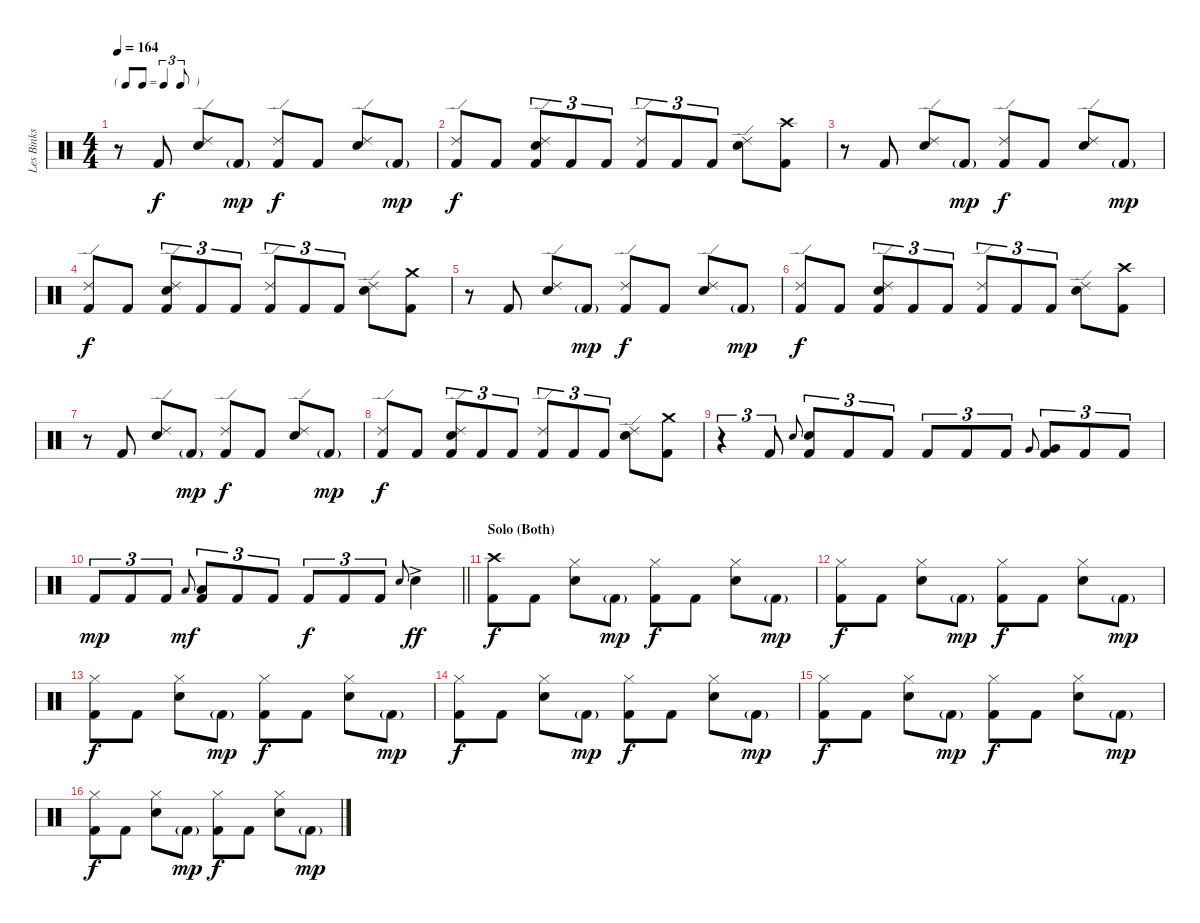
\track ("Les Binks" "Les Binks") {instrument percussion}
\staff {score}
\articulation defaults
\ts (4 4)
\tf triplet8th
\tempo 164
\clef neutral
\ks c
r.8{dy f} "Kick (hit) 2".8 ("Ride (edge) 2" "Electric Snare (hit)").8 "Kick (hit) 2"{g}.8{dy mp} ("Ride (edge) 2" "Kick (hit) 2").8{dy f} "Kick (hit) 2".8 ("Ride (edge) 2" "Electric Snare (hit)").8 "Kick (hit) 2"{g}.8{dy mp} |
("Ride (edge) 2" "Kick (hit) 2").8{dy f} "Kick (hit) 2".8 ("Ride (edge) 2" "Electric Snare (hit)" "Kick (hit) 2").8{tu (3 2)} "Kick (hit) 2".8{tu (3 2)} "Kick (hit) 2".8{tu (3 2)} ("Ride (edge) 2" "Kick (hit) 2").8{tu (3 2)} "Kick (hit) 2".8{tu (3 2)} "Kick (hit) 2".8{tu (3 2)} ("Ride (edge) 2" "Electric Snare (hit)").8 ("Crash high (hit)" "Kick (hit) 2").8 |
r.8 "Kick (hit) 2".8 ("Ride (edge) 2" "Electric Snare (hit)").8 "Kick (hit) 2"{g}.8{dy mp} ("Ride (edge) 2" "Kick (hit) 2").8{dy f} "Kick (hit) 2".8 ("Ride (edge) 2" "Electric Snare (hit)").8 "Kick (hit) 2"{g}.8{dy mp} |
("Ride (edge) 2" "Kick (hit) 2").8{dy f} "Kick (hit) 2".8 ("Ride (edge) 2" "Electric Snare (hit)" "Kick (hit) 2").8{tu (3 2)} "Kick (hit) 2".8{tu (3 2)} "Kick (hit) 2".8{tu (3 2)} ("Ride (edge) 2" "Kick (hit) 2").8{tu (3 2)} "Kick (hit) 2".8{tu (3 2)} "Kick (hit) 2".8{tu (3 2)} ("Ride (edge) 2" "Electric Snare (hit)").8 ("Crash medium (hit)" "Kick (hit) 2").8 |
r.8 "Kick (hit) 2".8 ("Ride (edge) 2" "Electric Snare (hit)").8 "Kick (hit) 2"{g}.8{dy mp} ("Ride (edge) 2" "Kick (hit) 2").8{dy f} "Kick (hit) 2".8 ("Ride (edge) 2" "Electric Snare (hit)").8 "Kick (hit) 2"{g}.8{dy mp} |
("Ride (edge) 2" "Kick (hit) 2").8{dy f} "Kick (hit) 2".8 ("Ride (edge) 2" "Electric Snare (hit)" "Kick (hit) 2").8{tu (3 2)} "Kick (hit) 2".8{tu (3 2)} "Kick (hit) 2".8{tu (3 2)} ("Ride (edge) 2" "Kick (hit) 2").8{tu (3 2)} "Kick (hit) 2".8{tu (3 2)} "Kick (hit) 2".8{tu (3 2)} ("Ride (edge) 2" "Electric Snare (hit)").8 ("Crash high (hit)" "Kick (hit) 2").8 |
r.8 "Kick (hit) 2".8 ("Ride (edge) 2" "Electric Snare (hit)").8 "Kick (hit) 2"{g}.8{dy mp} ("Ride (edge) 2" "Kick (hit) 2").8{dy f} "Kick (hit) 2".8 ("Ride (edge) 2" "Electric Snare (hit)").8 "Kick (hit) 2"{g}.8{dy mp} |
("Ride (edge) 2" "Kick (hit) 2").8{dy f} "Kick (hit) 2".8 ("Ride (edge) 2" "Electric Snare (hit)" "Kick (hit) 2").8{tu (3 2)} "Kick (hit) 2".8{tu (3 2)} "Kick (hit) 2".8{tu (3 2)} ("Ride (edge) 2" "Kick (hit) 2").8{tu (3 2)} "Kick (hit) 2".8{tu (3 2)} "Kick (hit) 2".8{tu (3 2)} ("Ride (edge) 2" "Electric Snare (hit)").8 ("Crash medium (hit)" "Kick (hit) 2").8 |
r.4{tu (3 2)} "Kick (hit) 2".8{tu (3 2)} "Electric Snare (hit)".8{gr onbeat} ("Electric Snare (hit)" "Kick (hit) 2").8{tu (3 2)} "Kick (hit) 2".8{tu (3 2)} "Kick (hit) 2".8{tu (3 2)} "Kick (hit) 2".8{tu (3 2)} "Kick (hit) 2".8{tu (3 2)} "Kick (hit) 2".8{tu (3 2)} "Very Low Tom (hit)".8{gr onbeat} ("Very Low Tom (hit)" "Kick (hit) 2").8{tu (3 2)} "Kick (hit) 2".8{tu (3 2)} "Kick (hit) 2".8{tu (3 2)} |
\barLineRight lightlight "Kick (hit) 2".8{tu (3 2) dy mp} "Kick (hit) 2".8{tu (3 2)} "Kick (hit) 2".8{tu (3 2)} "Low Floor Tom (hit)".8{gr onbeat dy mf}
("Low Floor Tom (hit)" "Kick (hit) 2").8{tu (3 2)} "Kick (hit) 2".8{tu (3 2)} "Kick (hit) 2".8{tu (3 2)} "Kick (hit) 2".8{tu (3 2) dy f} "Kick (hit) 2".8{tu (3 2)} "Kick (hit) 2".8{tu (3 2)} "Electric Snare (hit)".8{gr onbeat} "Electric Snare (hit)"{ac}.4{dy ff} |
\section ("" "Solo (Both)")
("Crash high (hit)" "Kick (hit) 2").8{dy f} "Kick (hit) 2".8 ("Hi-Hat (closed)" "Electric Snare (hit)").8 "Kick (hit) 2"{g}.8{dy mp} ("Hi-Hat (closed)" "Kick (hit) 2").8{dy f} "Kick (hit) 2".8 ("Hi-Hat (closed)" "Electric Snare (hit)").8 "Kick (hit) 2"{g}.8{dy mp} |
("Hi-Hat (closed)" "Kick (hit) 2").8{dy f} "Kick (hit) 2".8 ("Hi-Hat (closed)" "Electric Snare (hit)").8 "Kick (hit) 2"{g}.8{dy mp} ("Hi-Hat (closed)" "Kick (hit) 2").8{dy f} "Kick (hit) 2".8 ("Hi-Hat (closed)" "Electric Snare (hit)").8 "Kick (hit) 2"{g}.8{dy mp} |
("Hi-Hat (closed)" "Kick (hit) 2").8{dy f} "Kick (hit) 2".8 ("Hi-Hat (closed)" "Electric Snare (hit)").8 "Kick (hit) 2"{g}.8{dy mp} ("Hi-Hat (closed)" "Kick (hit) 2").8{dy f} "Kick (hit) 2".8 ("Hi-Hat (closed)" "Electric Snare (hit)").8 "Kick (hit) 2"{g}.8{dy mp} |
("Hi-Hat (closed)" "Kick (hit) 2").8{dy f} "Kick (hit) 2".8 ("Hi-Hat (closed)" "Electric Snare (hit)").8 "Kick (hit) 2"{g}.8{dy mp} ("Hi-Hat (closed)" "Kick (hit) 2").8{dy f} "Kick (hit) 2".8 ("Hi-Hat (closed)" "Electric Snare (hit)").8 "Kick (hit) 2"{g}.8{dy mp} |
("Hi-Hat (closed)" "Kick (hit) 2").8{dy f} "Kick (hit) 2".8 ("Hi-Hat (closed)" "Electric Snare (hit)").8 "Kick (hit) 2"{g}.8{dy mp} ("Hi-Hat (closed)" "Kick (hit) 2").8{dy f} "Kick (hit) 2".8 ("Hi-Hat (closed)" "Electric Snare (hit)").8 "Kick (hit) 2"{g}.8{dy mp} |
("Hi-Hat (closed)" "Kick (hit) 2").8{dy f} "Kick (hit) 2".8 ("Hi-Hat (closed)" "Electric Snare (hit)").8 "Kick (hit) 2"{g}.8{dy mp} ("Hi-Hat (closed)" "Kick (hit) 2").8{dy f} "Kick (hit) 2".8 ("Hi-Hat (closed)" "Electric Snare (hit)").8 "Kick (hit) 2"{g}.8{dy mp}
